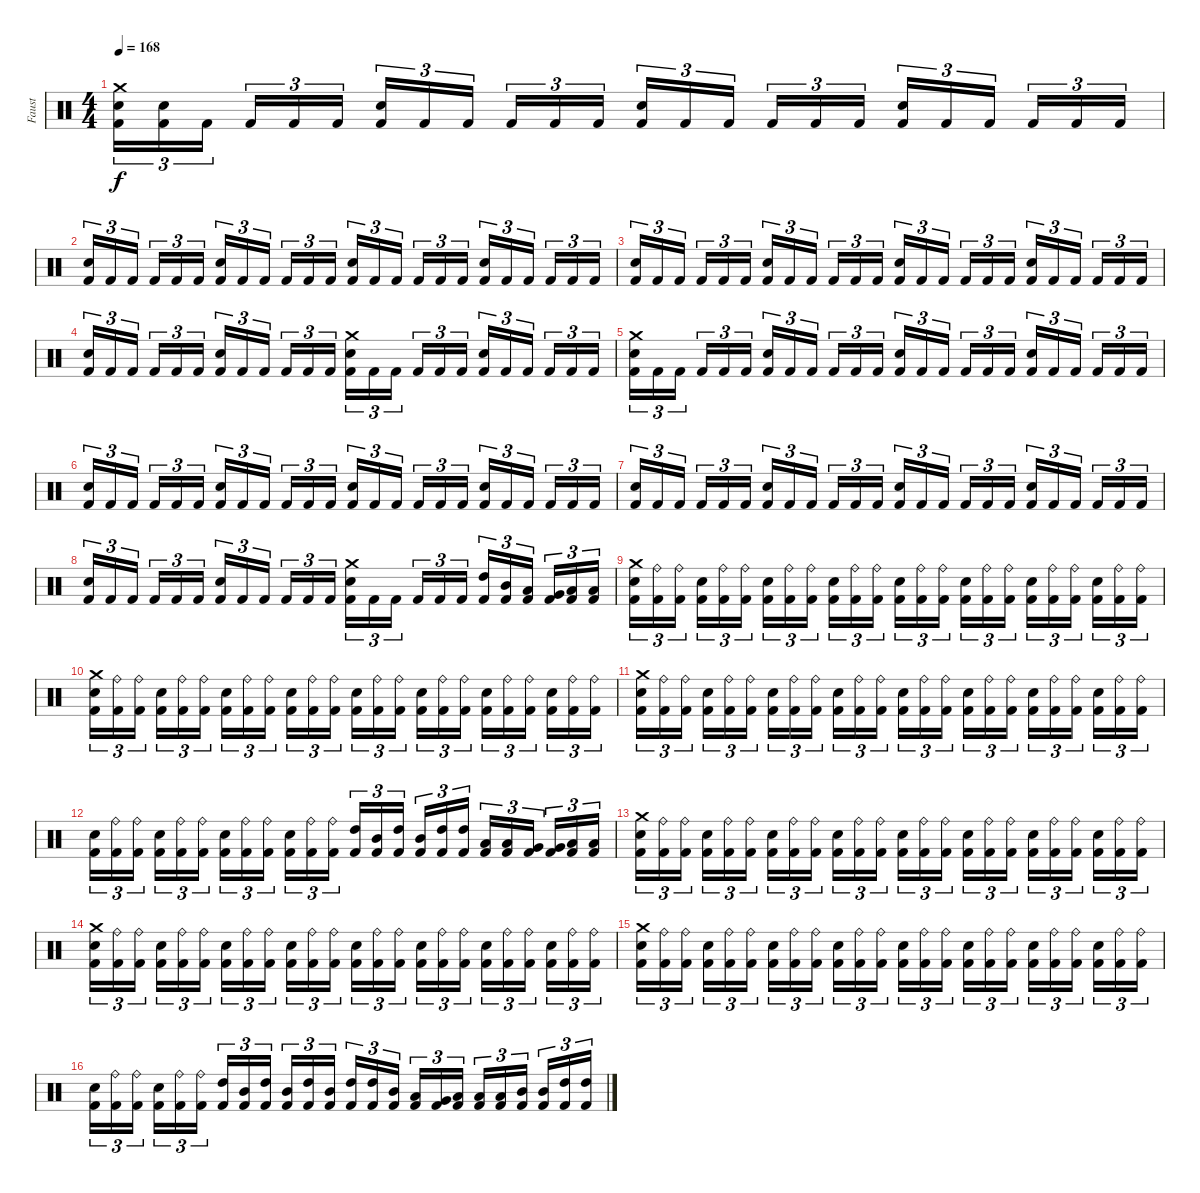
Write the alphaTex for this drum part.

\track ("Faust" "Faust") {instrument percussion}
\staff {score}
\articulation defaults
\ts (4 4)
\tempo 168
\clef neutral
\ks c
("Crash medium (hit)" "Electric Snare (hit)" "Kick (hit) 2").16{tu (3 2) dy f} ("Electric Snare (hit)" "Kick (hit) 2").16{tu (3 2)} "Kick (hit) 2".16{tu (3 2)} "Kick (hit) 2".16{tu (3 2)} "Kick (hit) 2".16{tu (3 2)} "Kick (hit) 2".16{tu (3 2)} ("Electric Snare (hit)" "Kick (hit) 2").16{tu (3 2)} "Kick (hit) 2".16{tu (3 2)} "Kick (hit) 2".16{tu (3 2)} "Kick (hit) 2".16{tu (3 2)} "Kick (hit) 2".16{tu (3 2)} "Kick (hit) 2".16{tu (3 2)} ("Electric Snare (hit)" "Kick (hit) 2").16{tu (3 2)} "Kick (hit) 2".16{tu (3 2)} "Kick (hit) 2".16{tu (3 2)} "Kick (hit) 2".16{tu (3 2)} "Kick (hit) 2".16{tu (3 2)} "Kick (hit) 2".16{tu (3 2)} ("Electric Snare (hit)" "Kick (hit) 2").16{tu (3 2)} "Kick (hit) 2".16{tu (3 2)} "Kick (hit) 2".16{tu (3 2)} "Kick (hit) 2".16{tu (3 2)} "Kick (hit) 2".16{tu (3 2)} "Kick (hit) 2".16{tu (3 2)} |
("Electric Snare (hit)" "Kick (hit) 2").16{tu (3 2)} "Kick (hit) 2".16{tu (3 2)} "Kick (hit) 2".16{tu (3 2)} "Kick (hit) 2".16{tu (3 2)} "Kick (hit) 2".16{tu (3 2)} "Kick (hit) 2".16{tu (3 2)} ("Electric Snare (hit)" "Kick (hit) 2").16{tu (3 2)} "Kick (hit) 2".16{tu (3 2)} "Kick (hit) 2".16{tu (3 2)} "Kick (hit) 2".16{tu (3 2)} "Kick (hit) 2".16{tu (3 2)} "Kick (hit) 2".16{tu (3 2)} ("Electric Snare (hit)" "Kick (hit) 2").16{tu (3 2)} "Kick (hit) 2".16{tu (3 2)} "Kick (hit) 2".16{tu (3 2)} "Kick (hit) 2".16{tu (3 2)} "Kick (hit) 2".16{tu (3 2)} "Kick (hit) 2".16{tu (3 2)} ("Electric Snare (hit)" "Kick (hit) 2").16{tu (3 2)} "Kick (hit) 2".16{tu (3 2)} "Kick (hit) 2".16{tu (3 2)} "Kick (hit) 2".16{tu (3 2)} "Kick (hit) 2".16{tu (3 2)} "Kick (hit) 2".16{tu (3 2)} |
("Electric Snare (hit)" "Kick (hit) 2").16{tu (3 2)} "Kick (hit) 2".16{tu (3 2)} "Kick (hit) 2".16{tu (3 2)} "Kick (hit) 2".16{tu (3 2)} "Kick (hit) 2".16{tu (3 2)} "Kick (hit) 2".16{tu (3 2)} ("Electric Snare (hit)" "Kick (hit) 2").16{tu (3 2)} "Kick (hit) 2".16{tu (3 2)} "Kick (hit) 2".16{tu (3 2)} "Kick (hit) 2".16{tu (3 2)} "Kick (hit) 2".16{tu (3 2)} "Kick (hit) 2".16{tu (3 2)} ("Electric Snare (hit)" "Kick (hit) 2").16{tu (3 2)} "Kick (hit) 2".16{tu (3 2)} "Kick (hit) 2".16{tu (3 2)} "Kick (hit) 2".16{tu (3 2)} "Kick (hit) 2".16{tu (3 2)} "Kick (hit) 2".16{tu (3 2)} ("Electric Snare (hit)" "Kick (hit) 2").16{tu (3 2)} "Kick (hit) 2".16{tu (3 2)} "Kick (hit) 2".16{tu (3 2)} "Kick (hit) 2".16{tu (3 2)} "Kick (hit) 2".16{tu (3 2)} "Kick (hit) 2".16{tu (3 2)} |
("Electric Snare (hit)" "Kick (hit) 2").16{tu (3 2)} "Kick (hit) 2".16{tu (3 2)} "Kick (hit) 2".16{tu (3 2)} "Kick (hit) 2".16{tu (3 2)} "Kick (hit) 2".16{tu (3 2)} "Kick (hit) 2".16{tu (3 2)} ("Electric Snare (hit)" "Kick (hit) 2").16{tu (3 2)} "Kick (hit) 2".16{tu (3 2)} "Kick (hit) 2".16{tu (3 2)} "Kick (hit) 2".16{tu (3 2)} "Kick (hit) 2".16{tu (3 2)} "Kick (hit) 2".16{tu (3 2)} ("Crash medium (hit)" "Electric Snare (hit)" "Kick (hit) 2").16{tu (3 2)} "Kick (hit) 2".16{tu (3 2)} "Kick (hit) 2".16{tu (3 2)} "Kick (hit) 2".16{tu (3 2)} "Kick (hit) 2".16{tu (3 2)} "Kick (hit) 2".16{tu (3 2)} ("Electric Snare (hit)" "Kick (hit) 2").16{tu (3 2)} "Kick (hit) 2".16{tu (3 2)} "Kick (hit) 2".16{tu (3 2)} "Kick (hit) 2".16{tu (3 2)} "Kick (hit) 2".16{tu (3 2)} "Kick (hit) 2".16{tu (3 2)} |
("Crash medium (hit)" "Electric Snare (hit)" "Kick (hit) 2").16{tu (3 2)} "Kick (hit) 2".16{tu (3 2)} "Kick (hit) 2".16{tu (3 2)} "Kick (hit) 2".16{tu (3 2)} "Kick (hit) 2".16{tu (3 2)} "Kick (hit) 2".16{tu (3 2)} ("Electric Snare (hit)" "Kick (hit) 2").16{tu (3 2)} "Kick (hit) 2".16{tu (3 2)} "Kick (hit) 2".16{tu (3 2)} "Kick (hit) 2".16{tu (3 2)} "Kick (hit) 2".16{tu (3 2)} "Kick (hit) 2".16{tu (3 2)} ("Electric Snare (hit)" "Kick (hit) 2").16{tu (3 2)} "Kick (hit) 2".16{tu (3 2)} "Kick (hit) 2".16{tu (3 2)} "Kick (hit) 2".16{tu (3 2)} "Kick (hit) 2".16{tu (3 2)} "Kick (hit) 2".16{tu (3 2)} ("Electric Snare (hit)" "Kick (hit) 2").16{tu (3 2)} "Kick (hit) 2".16{tu (3 2)} "Kick (hit) 2".16{tu (3 2)} "Kick (hit) 2".16{tu (3 2)} "Kick (hit) 2".16{tu (3 2)} "Kick (hit) 2".16{tu (3 2)} |
("Electric Snare (hit)" "Kick (hit) 2").16{tu (3 2)} "Kick (hit) 2".16{tu (3 2)} "Kick (hit) 2".16{tu (3 2)} "Kick (hit) 2".16{tu (3 2)} "Kick (hit) 2".16{tu (3 2)} "Kick (hit) 2".16{tu (3 2)} ("Electric Snare (hit)" "Kick (hit) 2").16{tu (3 2)} "Kick (hit) 2".16{tu (3 2)} "Kick (hit) 2".16{tu (3 2)} "Kick (hit) 2".16{tu (3 2)} "Kick (hit) 2".16{tu (3 2)} "Kick (hit) 2".16{tu (3 2)} ("Electric Snare (hit)" "Kick (hit) 2").16{tu (3 2)} "Kick (hit) 2".16{tu (3 2)} "Kick (hit) 2".16{tu (3 2)} "Kick (hit) 2".16{tu (3 2)} "Kick (hit) 2".16{tu (3 2)} "Kick (hit) 2".16{tu (3 2)} ("Electric Snare (hit)" "Kick (hit) 2").16{tu (3 2)} "Kick (hit) 2".16{tu (3 2)} "Kick (hit) 2".16{tu (3 2)} "Kick (hit) 2".16{tu (3 2)} "Kick (hit) 2".16{tu (3 2)} "Kick (hit) 2".16{tu (3 2)} |
("Electric Snare (hit)" "Kick (hit) 2").16{tu (3 2)} "Kick (hit) 2".16{tu (3 2)} "Kick (hit) 2".16{tu (3 2)} "Kick (hit) 2".16{tu (3 2)} "Kick (hit) 2".16{tu (3 2)} "Kick (hit) 2".16{tu (3 2)} ("Electric Snare (hit)" "Kick (hit) 2").16{tu (3 2)} "Kick (hit) 2".16{tu (3 2)} "Kick (hit) 2".16{tu (3 2)} "Kick (hit) 2".16{tu (3 2)} "Kick (hit) 2".16{tu (3 2)} "Kick (hit) 2".16{tu (3 2)} ("Electric Snare (hit)" "Kick (hit) 2").16{tu (3 2)} "Kick (hit) 2".16{tu (3 2)} "Kick (hit) 2".16{tu (3 2)} "Kick (hit) 2".16{tu (3 2)} "Kick (hit) 2".16{tu (3 2)} "Kick (hit) 2".16{tu (3 2)} ("Electric Snare (hit)" "Kick (hit) 2").16{tu (3 2)} "Kick (hit) 2".16{tu (3 2)} "Kick (hit) 2".16{tu (3 2)} "Kick (hit) 2".16{tu (3 2)} "Kick (hit) 2".16{tu (3 2)} "Kick (hit) 2".16{tu (3 2)} |
("Electric Snare (hit)" "Kick (hit) 2").16{tu (3 2)} "Kick (hit) 2".16{tu (3 2)} "Kick (hit) 2".16{tu (3 2)} "Kick (hit) 2".16{tu (3 2)} "Kick (hit) 2".16{tu (3 2)} "Kick (hit) 2".16{tu (3 2)} ("Electric Snare (hit)" "Kick (hit) 2").16{tu (3 2)} "Kick (hit) 2".16{tu (3 2)} "Kick (hit) 2".16{tu (3 2)} "Kick (hit) 2".16{tu (3 2)} "Kick (hit) 2".16{tu (3 2)} "Kick (hit) 2".16{tu (3 2)} ("Crash medium (hit)" "Electric Snare (hit)" "Kick (hit) 2").16{tu (3 2)} "Kick (hit) 2".16{tu (3 2)} "Kick (hit) 2".16{tu (3 2)} "Kick (hit) 2".16{tu (3 2)} "Kick (hit) 2".16{tu (3 2)} "Kick (hit) 2".16{tu (3 2)} ("High Tom (hit)" "Kick (hit) 2").16{tu (3 2)} ("Mid Tom (hit)" "Kick (hit) 2").16{tu (3 2)} ("Low Tom (hit)" "Kick (hit) 2").16{tu (3 2)} ("Very Low Tom (hit)" "Kick (hit) 2").16{tu (3 2)} ("Low Floor Tom (hit)" "Kick (hit) 2").16{tu (3 2)} ("Low Floor Tom (hit)" "Kick (hit) 2").16{tu (3 2)} |
("Crash medium (hit)" "Electric Snare (hit)" "Kick (hit) 2").16{tu (3 2)} ("Ride (bell)" "Kick (hit) 2").16{tu (3 2)} ("Ride (bell)" "Kick (hit) 2").16{tu (3 2)} ("Electric Snare (hit)" "Kick (hit) 2").16{tu (3 2)} ("Ride (bell)" "Kick (hit) 2").16{tu (3 2)} ("Ride (bell)" "Kick (hit) 2").16{tu (3 2)} ("Electric Snare (hit)" "Kick (hit) 2").16{tu (3 2)} ("Ride (bell)" "Kick (hit) 2").16{tu (3 2)} ("Ride (bell)" "Kick (hit) 2").16{tu (3 2)} ("Electric Snare (hit)" "Kick (hit) 2").16{tu (3 2)} ("Ride (bell)" "Kick (hit) 2").16{tu (3 2)} ("Ride (bell)" "Kick (hit) 2").16{tu (3 2)} ("Electric Snare (hit)" "Kick (hit) 2").16{tu (3 2)} ("Ride (bell)" "Kick (hit) 2").16{tu (3 2)} ("Ride (bell)" "Kick (hit) 2").16{tu (3 2)} ("Electric Snare (hit)" "Kick (hit) 2").16{tu (3 2)} ("Ride (bell)" "Kick (hit) 2").16{tu (3 2)} ("Ride (bell)" "Kick (hit) 2").16{tu (3 2)} ("Electric Snare (hit)" "Kick (hit) 2").16{tu (3 2)} ("Ride (bell)" "Kick (hit) 2").16{tu (3 2)} ("Ride (bell)" "Kick (hit) 2").16{tu (3 2)} ("Electric Snare (hit)" "Kick (hit) 2").16{tu (3 2)} ("Ride (bell)" "Kick (hit) 2").16{tu (3 2)} ("Ride (bell)" "Kick (hit) 2").16{tu (3 2)} |
("Crash medium (hit)" "Electric Snare (hit)" "Kick (hit) 2").16{tu (3 2)} ("Ride (bell)" "Kick (hit) 2").16{tu (3 2)} ("Ride (bell)" "Kick (hit) 2").16{tu (3 2)} ("Electric Snare (hit)" "Kick (hit) 2").16{tu (3 2)} ("Ride (bell)" "Kick (hit) 2").16{tu (3 2)} ("Ride (bell)" "Kick (hit) 2").16{tu (3 2)} ("Electric Snare (hit)" "Kick (hit) 2").16{tu (3 2)} ("Ride (bell)" "Kick (hit) 2").16{tu (3 2)} ("Ride (bell)" "Kick (hit) 2").16{tu (3 2)} ("Electric Snare (hit)" "Kick (hit) 2").16{tu (3 2)} ("Ride (bell)" "Kick (hit) 2").16{tu (3 2)} ("Ride (bell)" "Kick (hit) 2").16{tu (3 2)} ("Electric Snare (hit)" "Kick (hit) 2").16{tu (3 2)} ("Ride (bell)" "Kick (hit) 2").16{tu (3 2)} ("Ride (bell)" "Kick (hit) 2").16{tu (3 2)} ("Electric Snare (hit)" "Kick (hit) 2").16{tu (3 2)} ("Ride (bell)" "Kick (hit) 2").16{tu (3 2)} ("Ride (bell)" "Kick (hit) 2").16{tu (3 2)} ("Electric Snare (hit)" "Kick (hit) 2").16{tu (3 2)} ("Ride (bell)" "Kick (hit) 2").16{tu (3 2)} ("Ride (bell)" "Kick (hit) 2").16{tu (3 2)} ("Electric Snare (hit)" "Kick (hit) 2").16{tu (3 2)} ("Ride (bell)" "Kick (hit) 2").16{tu (3 2)} ("Ride (bell)" "Kick (hit) 2").16{tu (3 2)} |
("Crash medium (hit)" "Electric Snare (hit)" "Kick (hit) 2").16{tu (3 2)} ("Ride (bell)" "Kick (hit) 2").16{tu (3 2)} ("Ride (bell)" "Kick (hit) 2").16{tu (3 2)} ("Electric Snare (hit)" "Kick (hit) 2").16{tu (3 2)} ("Ride (bell)" "Kick (hit) 2").16{tu (3 2)} ("Ride (bell)" "Kick (hit) 2").16{tu (3 2)} ("Electric Snare (hit)" "Kick (hit) 2").16{tu (3 2)} ("Ride (bell)" "Kick (hit) 2").16{tu (3 2)} ("Ride (bell)" "Kick (hit) 2").16{tu (3 2)} ("Electric Snare (hit)" "Kick (hit) 2").16{tu (3 2)} ("Ride (bell)" "Kick (hit) 2").16{tu (3 2)} ("Ride (bell)" "Kick (hit) 2").16{tu (3 2)} ("Electric Snare (hit)" "Kick (hit) 2").16{tu (3 2)} ("Ride (bell)" "Kick (hit) 2").16{tu (3 2)} ("Ride (bell)" "Kick (hit) 2").16{tu (3 2)} ("Electric Snare (hit)" "Kick (hit) 2").16{tu (3 2)} ("Ride (bell)" "Kick (hit) 2").16{tu (3 2)} ("Ride (bell)" "Kick (hit) 2").16{tu (3 2)} ("Electric Snare (hit)" "Kick (hit) 2").16{tu (3 2)} ("Ride (bell)" "Kick (hit) 2").16{tu (3 2)} ("Ride (bell)" "Kick (hit) 2").16{tu (3 2)} ("Electric Snare (hit)" "Kick (hit) 2").16{tu (3 2)} ("Ride (bell)" "Kick (hit) 2").16{tu (3 2)} ("Ride (bell)" "Kick (hit) 2").16{tu (3 2)} |
("Electric Snare (hit)" "Kick (hit) 2").16{tu (3 2)} ("Ride (bell)" "Kick (hit) 2").16{tu (3 2)} ("Ride (bell)" "Kick (hit) 2").16{tu (3 2)} ("Electric Snare (hit)" "Kick (hit) 2").16{tu (3 2)} ("Ride (bell)" "Kick (hit) 2").16{tu (3 2)} ("Ride (bell)" "Kick (hit) 2").16{tu (3 2)} ("Electric Snare (hit)" "Kick (hit) 2").16{tu (3 2)} ("Ride (bell)" "Kick (hit) 2").16{tu (3 2)} ("Ride (bell)" "Kick (hit) 2").16{tu (3 2)} ("Electric Snare (hit)" "Kick (hit) 2").16{tu (3 2)} ("Ride (bell)" "Kick (hit) 2").16{tu (3 2)} ("Ride (bell)" "Kick (hit) 2").16{tu (3 2)} ("High Tom (hit)" "Kick (hit) 2").16{tu (3 2)} ("Mid Tom (hit)" "Kick (hit) 2").16{tu (3 2)} ("High Tom (hit)" "Kick (hit) 2").16{tu (3 2)} ("Mid Tom (hit)" "Kick (hit) 2").16{tu (3 2)} ("High Tom (hit)" "Kick (hit) 2").16{tu (3 2)} ("High Tom (hit)" "Kick (hit) 2").16{tu (3 2)} ("Low Tom (hit)" "Kick (hit) 2").16{tu (3 2)} ("Low Tom (hit)" "Kick (hit) 2").16{tu (3 2)} ("Very Low Tom (hit)" "Kick (hit) 2").16{tu (3 2)} ("Very Low Tom (hit)" "Kick (hit) 2").16{tu (3 2)} ("Low Floor Tom (hit)" "Kick (hit) 2").16{tu (3 2)} ("Low Floor Tom (hit)" "Kick (hit) 2").16{tu (3 2)} |
("Crash medium (hit)" "Electric Snare (hit)" "Kick (hit) 2").16{tu (3 2)} ("Ride (bell)" "Kick (hit) 2").16{tu (3 2)} ("Ride (bell)" "Kick (hit) 2").16{tu (3 2)} ("Electric Snare (hit)" "Kick (hit) 2").16{tu (3 2)} ("Ride (bell)" "Kick (hit) 2").16{tu (3 2)} ("Ride (bell)" "Kick (hit) 2").16{tu (3 2)} ("Electric Snare (hit)" "Kick (hit) 2").16{tu (3 2)} ("Ride (bell)" "Kick (hit) 2").16{tu (3 2)} ("Ride (bell)" "Kick (hit) 2").16{tu (3 2)} ("Electric Snare (hit)" "Kick (hit) 2").16{tu (3 2)} ("Ride (bell)" "Kick (hit) 2").16{tu (3 2)} ("Ride (bell)" "Kick (hit) 2").16{tu (3 2)} ("Electric Snare (hit)" "Kick (hit) 2").16{tu (3 2)} ("Ride (bell)" "Kick (hit) 2").16{tu (3 2)} ("Ride (bell)" "Kick (hit) 2").16{tu (3 2)} ("Electric Snare (hit)" "Kick (hit) 2").16{tu (3 2)} ("Ride (bell)" "Kick (hit) 2").16{tu (3 2)} ("Ride (bell)" "Kick (hit) 2").16{tu (3 2)} ("Electric Snare (hit)" "Kick (hit) 2").16{tu (3 2)} ("Ride (bell)" "Kick (hit) 2").16{tu (3 2)} ("Ride (bell)" "Kick (hit) 2").16{tu (3 2)} ("Electric Snare (hit)" "Kick (hit) 2").16{tu (3 2)} ("Ride (bell)" "Kick (hit) 2").16{tu (3 2)} ("Ride (bell)" "Kick (hit) 2").16{tu (3 2)} |
("Crash medium (hit)" "Electric Snare (hit)" "Kick (hit) 2").16{tu (3 2)} ("Ride (bell)" "Kick (hit) 2").16{tu (3 2)} ("Ride (bell)" "Kick (hit) 2").16{tu (3 2)} ("Electric Snare (hit)" "Kick (hit) 2").16{tu (3 2)} ("Ride (bell)" "Kick (hit) 2").16{tu (3 2)} ("Ride (bell)" "Kick (hit) 2").16{tu (3 2)} ("Electric Snare (hit)" "Kick (hit) 2").16{tu (3 2)} ("Ride (bell)" "Kick (hit) 2").16{tu (3 2)} ("Ride (bell)" "Kick (hit) 2").16{tu (3 2)} ("Electric Snare (hit)" "Kick (hit) 2").16{tu (3 2)} ("Ride (bell)" "Kick (hit) 2").16{tu (3 2)} ("Ride (bell)" "Kick (hit) 2").16{tu (3 2)} ("Electric Snare (hit)" "Kick (hit) 2").16{tu (3 2)} ("Ride (bell)" "Kick (hit) 2").16{tu (3 2)} ("Ride (bell)" "Kick (hit) 2").16{tu (3 2)} ("Electric Snare (hit)" "Kick (hit) 2").16{tu (3 2)} ("Ride (bell)" "Kick (hit) 2").16{tu (3 2)} ("Ride (bell)" "Kick (hit) 2").16{tu (3 2)} ("Electric Snare (hit)" "Kick (hit) 2").16{tu (3 2)} ("Ride (bell)" "Kick (hit) 2").16{tu (3 2)} ("Ride (bell)" "Kick (hit) 2").16{tu (3 2)} ("Electric Snare (hit)" "Kick (hit) 2").16{tu (3 2)} ("Ride (bell)" "Kick (hit) 2").16{tu (3 2)} ("Ride (bell)" "Kick (hit) 2").16{tu (3 2)} |
("Crash medium (hit)" "Electric Snare (hit)" "Kick (hit) 2").16{tu (3 2)} ("Ride (bell)" "Kick (hit) 2").16{tu (3 2)} ("Ride (bell)" "Kick (hit) 2").16{tu (3 2)} ("Electric Snare (hit)" "Kick (hit) 2").16{tu (3 2)} ("Ride (bell)" "Kick (hit) 2").16{tu (3 2)} ("Ride (bell)" "Kick (hit) 2").16{tu (3 2)} ("Electric Snare (hit)" "Kick (hit) 2").16{tu (3 2)} ("Ride (bell)" "Kick (hit) 2").16{tu (3 2)} ("Ride (bell)" "Kick (hit) 2").16{tu (3 2)} ("Electric Snare (hit)" "Kick (hit) 2").16{tu (3 2)} ("Ride (bell)" "Kick (hit) 2").16{tu (3 2)} ("Ride (bell)" "Kick (hit) 2").16{tu (3 2)} ("Electric Snare (hit)" "Kick (hit) 2").16{tu (3 2)} ("Ride (bell)" "Kick (hit) 2").16{tu (3 2)} ("Ride (bell)" "Kick (hit) 2").16{tu (3 2)} ("Electric Snare (hit)" "Kick (hit) 2").16{tu (3 2)} ("Ride (bell)" "Kick (hit) 2").16{tu (3 2)} ("Ride (bell)" "Kick (hit) 2").16{tu (3 2)} ("Electric Snare (hit)" "Kick (hit) 2").16{tu (3 2)} ("Ride (bell)" "Kick (hit) 2").16{tu (3 2)} ("Ride (bell)" "Kick (hit) 2").16{tu (3 2)} ("Electric Snare (hit)" "Kick (hit) 2").16{tu (3 2)} ("Ride (bell)" "Kick (hit) 2").16{tu (3 2)} ("Ride (bell)" "Kick (hit) 2").16{tu (3 2)} |
("Electric Snare (hit)" "Kick (hit) 2").16{tu (3 2)} ("Ride (bell)" "Kick (hit) 2").16{tu (3 2)} ("Ride (bell)" "Kick (hit) 2").16{tu (3 2)} ("Electric Snare (hit)" "Kick (hit) 2").16{tu (3 2)} ("Ride (bell)" "Kick (hit) 2").16{tu (3 2)} ("Ride (bell)" "Kick (hit) 2").16{tu (3 2)} ("High Tom (hit)" "Kick (hit) 2").16{tu (3 2)} ("Mid Tom (hit)" "Kick (hit) 2").16{tu (3 2)} ("High Tom (hit)" "Kick (hit) 2").16{tu (3 2)} ("Mid Tom (hit)" "Kick (hit) 2").16{tu (3 2)} ("High Tom (hit)" "Kick (hit) 2").16{tu (3 2)} ("Mid Tom (hit)" "Kick (hit) 2").16{tu (3 2)} ("High Tom (hit)" "Kick (hit) 2").16{tu (3 2)} ("High Tom (hit)" "Kick (hit) 2").16{tu (3 2)} ("Mid Tom (hit)" "Kick (hit) 2").16{tu (3 2)} ("Low Tom (hit)" "Kick (hit) 2").16{tu (3 2)} ("Very Low Tom (hit)" "Kick (hit) 2").16{tu (3 2)} ("Low Tom (hit)" "Kick (hit) 2").16{tu (3 2)} ("Low Tom (hit)" "Kick (hit) 2").16{tu (3 2)} ("Low Tom (hit)" "Kick (hit) 2").16{tu (3 2)} ("Mid Tom (hit)" "Kick (hit) 2").16{tu (3 2)} ("Mid Tom (hit)" "Kick (hit) 2").16{tu (3 2)} ("High Tom (hit)" "Kick (hit) 2").16{tu (3 2)} ("High Tom (hit)" "Kick (hit) 2").16{tu (3 2)}
